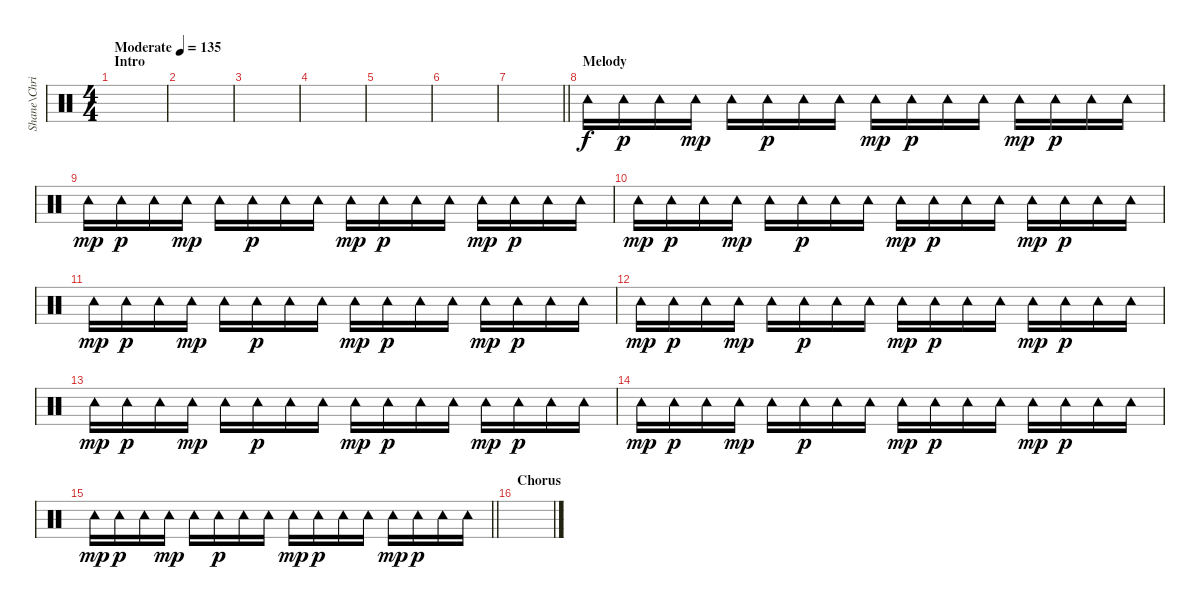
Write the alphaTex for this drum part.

\track ("Shane\\Chris - Percussion" "Shane\\Chri") {instrument percussion}
\staff {score}
\articulation defaults
\ts (4 4)
\section ("" "Intro")
\tempo (135 "Moderate")
\clef neutral
\ks c
|
|
|
|
|
|
\barLineRight lightlight
|
\section ("" "Melody")
"Tambourine (hit)".16 "Tambourine (hit)".16{dy p} "Tambourine (hit)".16 "Tambourine (hit)".16{dy mp} "Tambourine (hit)".16 "Tambourine (hit)".16{dy p} "Tambourine (hit)".16 "Tambourine (hit)".16 "Tambourine (hit)".16{dy mp} "Tambourine (hit)".16{dy p} "Tambourine (hit)".16 "Tambourine (hit)".16 "Tambourine (hit)".16{dy mp} "Tambourine (hit)".16{dy p} "Tambourine (hit)".16 "Tambourine (hit)".16 |
"Tambourine (hit)".16{dy mp} "Tambourine (hit)".16{dy p} "Tambourine (hit)".16 "Tambourine (hit)".16{dy mp} "Tambourine (hit)".16 "Tambourine (hit)".16{dy p} "Tambourine (hit)".16 "Tambourine (hit)".16 "Tambourine (hit)".16{dy mp} "Tambourine (hit)".16{dy p} "Tambourine (hit)".16 "Tambourine (hit)".16 "Tambourine (hit)".16{dy mp} "Tambourine (hit)".16{dy p} "Tambourine (hit)".16 "Tambourine (hit)".16 |
"Tambourine (hit)".16{dy mp} "Tambourine (hit)".16{dy p} "Tambourine (hit)".16 "Tambourine (hit)".16{dy mp} "Tambourine (hit)".16 "Tambourine (hit)".16{dy p} "Tambourine (hit)".16 "Tambourine (hit)".16 "Tambourine (hit)".16{dy mp} "Tambourine (hit)".16{dy p} "Tambourine (hit)".16 "Tambourine (hit)".16 "Tambourine (hit)".16{dy mp} "Tambourine (hit)".16{dy p} "Tambourine (hit)".16 "Tambourine (hit)".16 |
"Tambourine (hit)".16{dy mp} "Tambourine (hit)".16{dy p} "Tambourine (hit)".16 "Tambourine (hit)".16{dy mp} "Tambourine (hit)".16 "Tambourine (hit)".16{dy p} "Tambourine (hit)".16 "Tambourine (hit)".16 "Tambourine (hit)".16{dy mp} "Tambourine (hit)".16{dy p} "Tambourine (hit)".16 "Tambourine (hit)".16 "Tambourine (hit)".16{dy mp} "Tambourine (hit)".16{dy p} "Tambourine (hit)".16 "Tambourine (hit)".16 |
"Tambourine (hit)".16{dy mp} "Tambourine (hit)".16{dy p} "Tambourine (hit)".16 "Tambourine (hit)".16{dy mp} "Tambourine (hit)".16 "Tambourine (hit)".16{dy p} "Tambourine (hit)".16 "Tambourine (hit)".16 "Tambourine (hit)".16{dy mp} "Tambourine (hit)".16{dy p} "Tambourine (hit)".16 "Tambourine (hit)".16 "Tambourine (hit)".16{dy mp} "Tambourine (hit)".16{dy p} "Tambourine (hit)".16 "Tambourine (hit)".16 |
"Tambourine (hit)".16{dy mp} "Tambourine (hit)".16{dy p} "Tambourine (hit)".16 "Tambourine (hit)".16{dy mp} "Tambourine (hit)".16 "Tambourine (hit)".16{dy p} "Tambourine (hit)".16 "Tambourine (hit)".16 "Tambourine (hit)".16{dy mp} "Tambourine (hit)".16{dy p} "Tambourine (hit)".16 "Tambourine (hit)".16 "Tambourine (hit)".16{dy mp} "Tambourine (hit)".16{dy p} "Tambourine (hit)".16 "Tambourine (hit)".16 |
"Tambourine (hit)".16{dy mp} "Tambourine (hit)".16{dy p} "Tambourine (hit)".16 "Tambourine (hit)".16{dy mp} "Tambourine (hit)".16 "Tambourine (hit)".16{dy p} "Tambourine (hit)".16 "Tambourine (hit)".16 "Tambourine (hit)".16{dy mp} "Tambourine (hit)".16{dy p} "Tambourine (hit)".16 "Tambourine (hit)".16 "Tambourine (hit)".16{dy mp} "Tambourine (hit)".16{dy p} "Tambourine (hit)".16 "Tambourine (hit)".16 |
\barLineRight lightlight "Tambourine (hit)".16{dy mp} "Tambourine (hit)".16{dy p} "Tambourine (hit)".16 "Tambourine (hit)".16{dy mp} "Tambourine (hit)".16 "Tambourine (hit)".16{dy p} "Tambourine (hit)".16 "Tambourine (hit)".16 "Tambourine (hit)".16{dy mp} "Tambourine (hit)".16{dy p} "Tambourine (hit)".16 "Tambourine (hit)".16 "Tambourine (hit)".16{dy mp} "Tambourine (hit)".16{dy p} "Tambourine (hit)".16 "Tambourine (hit)".16
|
\section ("" "Chorus")
